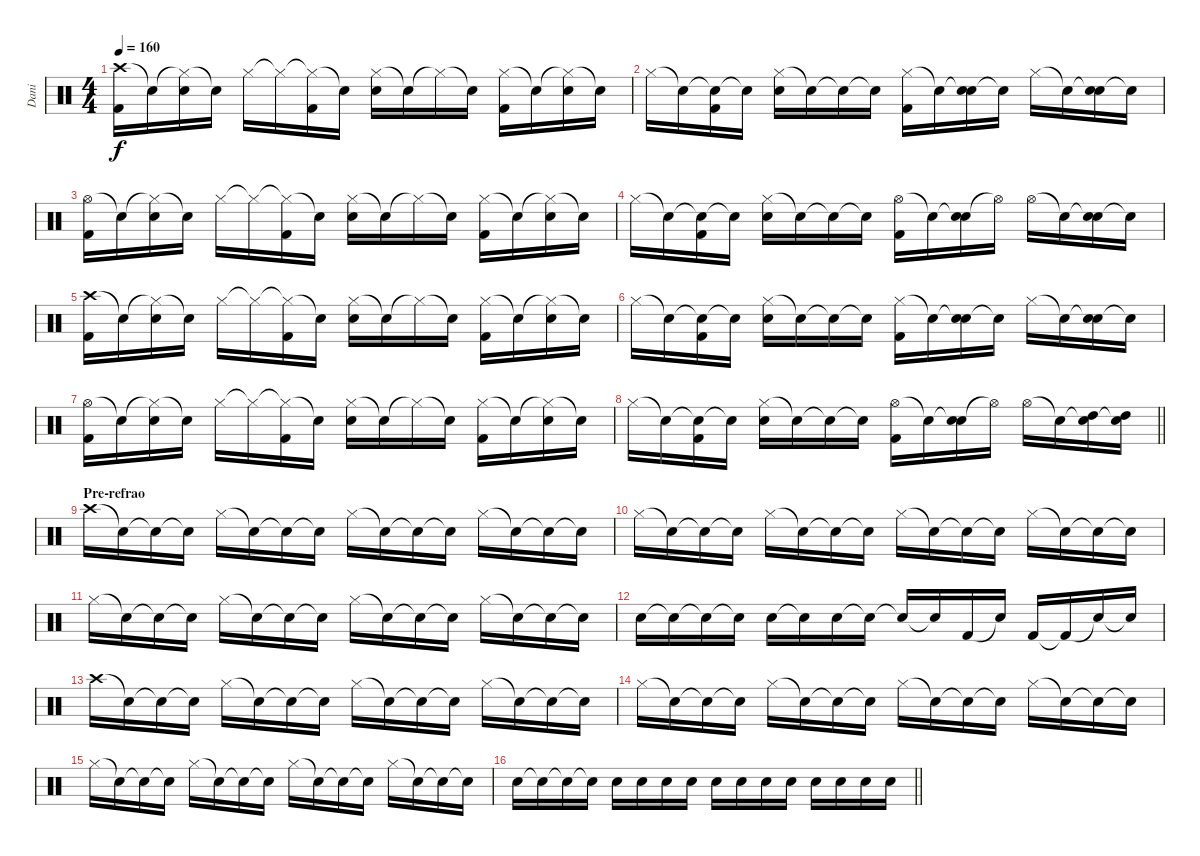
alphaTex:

\track ("Dani " "Dani ") {instrument percussion}
\staff {score}
\articulation defaults
\ts (4 4)
\tempo 160
\clef neutral
\ks c
("Crash high (hit)" "Kick (hit) 2").16{dy f} "Snare (hit)"{t}.16 ("Hi-Hat (closed)"{t} "Electric Snare (hit)").16 "Snare (hit)"{t}.16 "Hi-Hat (closed)".16 "Hi-Hat (closed)"{t}.16 ("Hi-Hat (closed)"{t} "Kick (hit) 2").16 "Snare (hit)"{t}.16 ("Hi-Hat (closed)" "Electric Snare (hit)").16 "Snare (hit)"{t}.16 "Hi-Hat (closed)"{t}.16 "Snare (hit)"{t}.16 ("Hi-Hat (closed)" "Kick (hit) 2").16 "Snare (hit)"{t}.16 ("Hi-Hat (closed)"{t} "Electric Snare (hit)").16 "Snare (hit)"{t}.16 |
"Hi-Hat (closed)".16 "Snare (hit)"{t}.16 ("Snare (hit)"{t} "Kick (hit) 2").16 "Snare (hit)"{t}.16 ("Hi-Hat (closed)" "Electric Snare (hit)").16 "Snare (hit)"{t}.16 "Snare (hit)"{t}.16 "Snare (hit)"{t}.16 ("Hi-Hat (closed)" "Kick (hit) 2").16 "Snare (hit)"{t}.16 ("Snare (hit)"{t} "Electric Snare (hit)").16 "Snare (hit)"{t}.16 "Hi-Hat (closed)".16 "Snare (hit)"{t}.16 ("Snare (hit)"{t} "Electric Snare (hit)").16 "Snare (hit)"{t}.16 |
("Hi-Hat (open)" "Kick (hit) 2").16 "Snare (hit)"{t}.16 ("Hi-Hat (closed)"{t} "Electric Snare (hit)").16 "Snare (hit)"{t}.16 "Hi-Hat (closed)".16 "Hi-Hat (closed)"{t}.16 ("Hi-Hat (closed)"{t} "Kick (hit) 2").16 "Snare (hit)"{t}.16 ("Hi-Hat (closed)" "Electric Snare (hit)").16 "Snare (hit)"{t}.16 "Hi-Hat (closed)"{t}.16 "Snare (hit)"{t}.16 ("Hi-Hat (closed)" "Kick (hit) 2").16 "Snare (hit)"{t}.16 ("Hi-Hat (closed)"{t} "Electric Snare (hit)").16 "Snare (hit)"{t}.16 |
"Hi-Hat (closed)".16 "Snare (hit)"{t}.16 ("Snare (hit)"{t} "Kick (hit) 2").16 "Snare (hit)"{t}.16 ("Hi-Hat (closed)" "Electric Snare (hit)").16 "Snare (hit)"{t}.16 "Snare (hit)"{t}.16 "Snare (hit)"{t}.16 ("Hi-Hat (open)" "Kick (hit) 2").16 "Snare (hit)"{t}.16 ("Snare (hit)"{t} "Electric Snare (hit)").16 "Hi-Hat (open)"{t}.16 "Hi-Hat (open)".16 "Snare (hit)"{t}.16 ("Snare (hit)"{t} "Electric Snare (hit)").16 "Snare (hit)"{t}.16 |
("Crash high (hit)" "Kick (hit) 2").16 "Snare (hit)"{t}.16 ("Hi-Hat (closed)"{t} "Electric Snare (hit)").16 "Snare (hit)"{t}.16 "Hi-Hat (closed)".16 "Hi-Hat (closed)"{t}.16 ("Hi-Hat (closed)"{t} "Kick (hit) 2").16 "Snare (hit)"{t}.16 ("Hi-Hat (closed)" "Electric Snare (hit)").16 "Snare (hit)"{t}.16 "Hi-Hat (closed)"{t}.16 "Snare (hit)"{t}.16 ("Hi-Hat (closed)" "Kick (hit) 2").16 "Snare (hit)"{t}.16 ("Hi-Hat (closed)"{t} "Electric Snare (hit)").16 "Snare (hit)"{t}.16 |
"Hi-Hat (closed)".16 "Snare (hit)"{t}.16 ("Snare (hit)"{t} "Kick (hit) 2").16 "Snare (hit)"{t}.16 ("Hi-Hat (closed)" "Electric Snare (hit)").16 "Snare (hit)"{t}.16 "Snare (hit)"{t}.16 "Snare (hit)"{t}.16 ("Hi-Hat (closed)" "Kick (hit) 2").16 "Snare (hit)"{t}.16 ("Snare (hit)"{t} "Electric Snare (hit)").16 "Snare (hit)"{t}.16 "Hi-Hat (closed)".16 "Snare (hit)"{t}.16 ("Snare (hit)"{t} "Electric Snare (hit)").16 "Snare (hit)"{t}.16 |
("Hi-Hat (open)" "Kick (hit) 2").16 "Snare (hit)"{t}.16 ("Hi-Hat (closed)"{t} "Electric Snare (hit)").16 "Snare (hit)"{t}.16 "Hi-Hat (closed)".16 "Hi-Hat (closed)"{t}.16 ("Hi-Hat (closed)"{t} "Kick (hit) 2").16 "Snare (hit)"{t}.16 ("Hi-Hat (closed)" "Electric Snare (hit)").16 "Snare (hit)"{t}.16 "Hi-Hat (closed)"{t}.16 "Snare (hit)"{t}.16 ("Hi-Hat (closed)" "Kick (hit) 2").16 "Snare (hit)"{t}.16 ("Hi-Hat (closed)"{t} "Electric Snare (hit)").16 "Snare (hit)"{t}.16 |
\barLineRight lightlight "Hi-Hat (closed)".16 "Snare (hit)"{t}.16
("Snare (hit)"{t} "Kick (hit) 2").16 "Snare (hit)"{t}.16 ("Hi-Hat (closed)" "Electric Snare (hit)").16 "Snare (hit)"{t}.16 "Snare (hit)"{t}.16 "Snare (hit)"{t}.16 ("Hi-Hat (open)" "Kick (hit) 2").16 "Snare (hit)"{t}.16 ("Snare (hit)"{t} "Electric Snare (hit)").16 "Hi-Hat (open)"{t}.16 "Hi-Hat (open)".16 "Snare (hit)"{t}.16 ("Snare (hit)"{t} "High Tom (hit)").16 ("Snare (hit)"{t} "High Tom (hit)").16 |
\section ("" "Pre-refrao")
"Crash high (hit)".16 "Snare (hit)"{t}.16 "Snare (hit)"{t}.16 "Snare (hit)"{t}.16 "Hi-Hat (closed)".16 "Snare (hit)"{t}.16 "Snare (hit)"{t}.16 "Snare (hit)"{t}.16 "Hi-Hat (closed)".16 "Snare (hit)"{t}.16 "Snare (hit)"{t}.16 "Snare (hit)"{t}.16 "Hi-Hat (closed)".16 "Snare (hit)"{t}.16 "Snare (hit)"{t}.16 "Snare (hit)"{t}.16 |
"Hi-Hat (closed)".16 "Snare (hit)"{t}.16 "Snare (hit)"{t}.16 "Snare (hit)"{t}.16 "Hi-Hat (closed)".16 "Snare (hit)"{t}.16 "Snare (hit)"{t}.16 "Snare (hit)"{t}.16 "Hi-Hat (closed)".16 "Snare (hit)"{t}.16 "Snare (hit)"{t}.16 "Snare (hit)"{t}.16 "Hi-Hat (closed)".16 "Snare (hit)"{t}.16 "Snare (hit)"{t}.16 "Snare (hit)"{t}.16 |
"Hi-Hat (closed)".16 "Snare (hit)"{t}.16 "Snare (hit)"{t}.16 "Snare (hit)"{t}.16 "Hi-Hat (closed)".16 "Snare (hit)"{t}.16 "Snare (hit)"{t}.16 "Snare (hit)"{t}.16 "Hi-Hat (closed)".16 "Snare (hit)"{t}.16 "Snare (hit)"{t}.16 "Snare (hit)"{t}.16 "Hi-Hat (closed)".16 "Snare (hit)"{t}.16 "Snare (hit)"{t}.16 "Snare (hit)"{t}.16 |
"Electric Snare (hit)".16 "Snare (hit)"{t}.16 "Snare (hit)"{t}.16 "Snare (hit)"{t}.16 "Electric Snare (hit)".16 "Snare (hit)"{t}.16 "Electric Snare (hit)".16 "Snare (hit)"{t}.16 "Snare (hit)"{t}.16 "Snare (hit)"{t}.16 "Kick (hit) 2".16 "Snare (hit)"{t}.16 "Kick (hit) 2".16 "Kick (hit) 2"{t}.16 "Snare (hit)"{t}.16 "Snare (hit)"{t}.16 |
"Crash high (hit)".16 "Snare (hit)"{t}.16 "Snare (hit)"{t}.16 "Snare (hit)"{t}.16 "Hi-Hat (closed)".16 "Snare (hit)"{t}.16 "Snare (hit)"{t}.16 "Snare (hit)"{t}.16 "Hi-Hat (closed)".16 "Snare (hit)"{t}.16 "Snare (hit)"{t}.16 "Snare (hit)"{t}.16 "Hi-Hat (closed)".16 "Snare (hit)"{t}.16 "Snare (hit)"{t}.16 "Snare (hit)"{t}.16 |
"Hi-Hat (closed)".16 "Snare (hit)"{t}.16 "Snare (hit)"{t}.16 "Snare (hit)"{t}.16 "Hi-Hat (closed)".16 "Snare (hit)"{t}.16 "Snare (hit)"{t}.16 "Snare (hit)"{t}.16 "Hi-Hat (closed)".16 "Snare (hit)"{t}.16 "Snare (hit)"{t}.16 "Snare (hit)"{t}.16 "Hi-Hat (closed)".16 "Snare (hit)"{t}.16 "Snare (hit)"{t}.16 "Snare (hit)"{t}.16 |
"Hi-Hat (closed)".16 "Snare (hit)"{t}.16 "Snare (hit)"{t}.16 "Snare (hit)"{t}.16 "Hi-Hat (closed)".16 "Snare (hit)"{t}.16 "Snare (hit)"{t}.16 "Snare (hit)"{t}.16 "Hi-Hat (closed)".16 "Snare (hit)"{t}.16 "Snare (hit)"{t}.16 "Snare (hit)"{t}.16 "Hi-Hat (closed)".16 "Snare (hit)"{t}.16 "Snare (hit)"{t}.16 "Snare (hit)"{t}.16 |
\barLineRight lightlight "Electric Snare (hit)".16 "Snare (hit)"{t}.16 "Snare (hit)"{t}.16 "Snare (hit)"{t}.16 "Electric Snare (hit)".16 "Electric Snare (hit)".16 "Electric Snare (hit)".16 "Electric Snare (hit)".16 "Electric Snare (hit)".16 "Electric Snare (hit)".16 "Electric Snare (hit)".16 "Electric Snare (hit)".16 "Electric Snare (hit)".16 "Electric Snare (hit)".16 "Electric Snare (hit)".16 "Electric Snare (hit)".16
